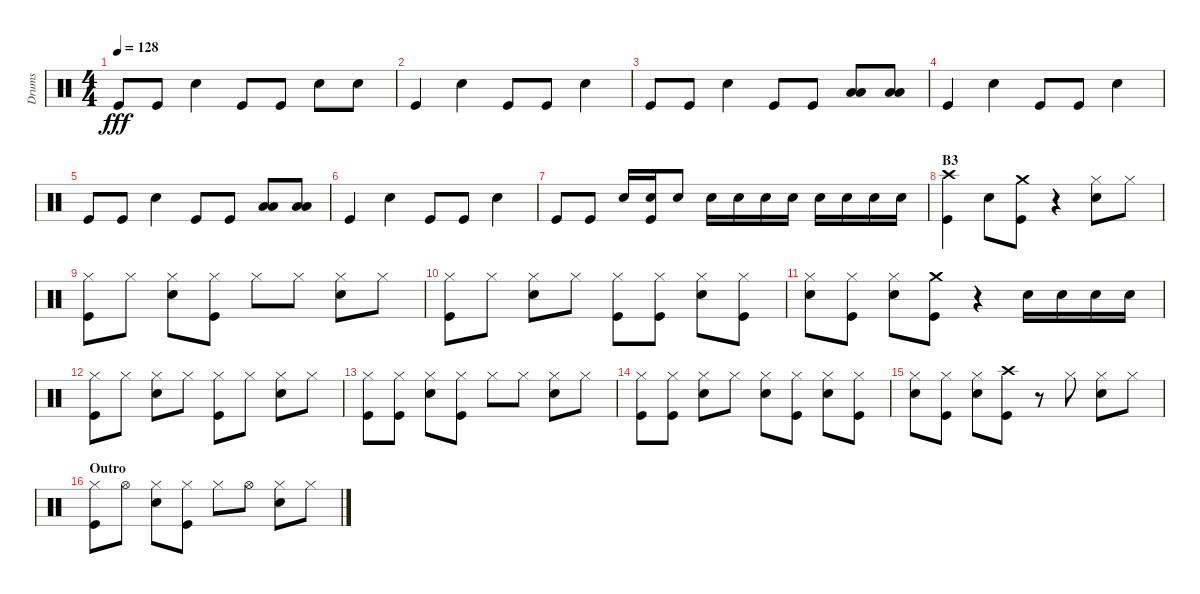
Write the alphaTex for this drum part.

\track ("Drums" "Drums") {instrument percussion}
\staff {score}
\articulation defaults
\ts (4 4)
\tempo 128
\clef neutral
\ks c "Kick (hit)".8{dy fff} "Kick (hit)".8 "Snare (hit) 2".4 "Kick (hit)".8 "Kick (hit)".8 "Snare (hit) 2".8 "Snare (hit) 2".8
|
"Kick (hit)".4 "Snare (hit) 2".4 "Kick (hit)".8 "Kick (hit)".8 "Snare (hit) 2".4 |
"Kick (hit)".8 "Kick (hit)".8 "Snare (hit) 2".4 "Kick (hit)".8 "Kick (hit)".8 ("Low Tom (hit)" "Low Floor Tom (hit)").8 ("Low Tom (hit)" "Low Floor Tom (hit)").8 |
"Kick (hit)".4 "Snare (hit) 2".4 "Kick (hit)".8 "Kick (hit)".8 "Snare (hit) 2".4 |
"Kick (hit)".8 "Kick (hit)".8 "Snare (hit) 2".4 "Kick (hit)".8 "Kick (hit)".8 ("Low Tom (hit)" "Low Floor Tom (hit)").8 ("Low Tom (hit)" "Low Floor Tom (hit)").8 |
"Kick (hit)".4 "Snare (hit) 2".4 "Kick (hit)".8 "Kick (hit)".8 "Snare (hit) 2".4 |
"Kick (hit)".8 "Kick (hit)".8 "Snare (hit) 2".16 ("Snare (hit) 2" "Kick (hit)").16 "Snare (hit) 2".8 "Snare (hit) 2".16 "Snare (hit) 2".16 "Snare (hit) 2".16 "Snare (hit) 2".16 "Snare (hit) 2".16 "Snare (hit) 2".16 "Snare (hit) 2".16 "Snare (hit) 2".16 |
\section ("" "B3")
("Crash high (hit)" "Kick (hit)").4 "Snare (hit) 2".8 ("Crash medium (hit)" "Kick (hit)").8 r.4 ("Hi-Hat (closed)" "Snare (hit) 2").8 "Hi-Hat (closed)".8 |
("Hi-Hat (closed)" "Kick (hit)").8 "Hi-Hat (closed)".8 ("Hi-Hat (closed)" "Snare (hit) 2").8 ("Hi-Hat (closed)" "Kick (hit)").8 "Hi-Hat (closed)".8 "Hi-Hat (closed)".8 ("Hi-Hat (closed)" "Snare (hit) 2").8 "Hi-Hat (closed)".8 |
("Hi-Hat (closed)" "Kick (hit)").8 "Hi-Hat (closed)".8 ("Hi-Hat (closed)" "Snare (hit) 2").8 "Hi-Hat (closed)".8 ("Hi-Hat (closed)" "Kick (hit)").8 ("Hi-Hat (closed)" "Kick (hit)").8 ("Hi-Hat (closed)" "Snare (hit) 2").8 ("Hi-Hat (closed)" "Kick (hit)").8 |
("Hi-Hat (closed)" "Snare (hit) 2").8 ("Hi-Hat (closed)" "Kick (hit)").8 ("Hi-Hat (closed)" "Snare (hit) 2").8 ("Crash medium (hit)" "Kick (hit)").8 r.4 "Snare (hit) 2".16 "Snare (hit) 2".16 "Snare (hit) 2".16 "Snare (hit) 2".16 |
("Hi-Hat (closed)" "Kick (hit)").8 "Hi-Hat (closed)".8 ("Hi-Hat (closed)" "Snare (hit) 2").8 "Hi-Hat (closed)".8 ("Hi-Hat (closed)" "Kick (hit)").8 "Hi-Hat (closed)".8 ("Hi-Hat (closed)" "Snare (hit) 2").8 "Hi-Hat (closed)".8 |
("Hi-Hat (closed)" "Kick (hit)").8 ("Hi-Hat (closed)" "Kick (hit)").8 ("Hi-Hat (closed)" "Snare (hit) 2").8 ("Hi-Hat (closed)" "Kick (hit)").8 "Hi-Hat (closed)".8 "Hi-Hat (closed)".8 ("Hi-Hat (closed)" "Snare (hit) 2").8 "Hi-Hat (closed)".8 |
("Hi-Hat (closed)" "Kick (hit)").8 ("Hi-Hat (closed)" "Kick (hit)").8 ("Hi-Hat (closed)" "Snare (hit) 2").8 "Hi-Hat (closed)".8 ("Hi-Hat (closed)" "Snare (hit) 2").8 ("Hi-Hat (closed)" "Kick (hit)").8 ("Hi-Hat (closed)" "Snare (hit) 2").8 ("Hi-Hat (closed)" "Kick (hit)").8 |
("Hi-Hat (closed)" "Snare (hit) 2").8 ("Hi-Hat (closed)" "Kick (hit)").8 ("Hi-Hat (closed)" "Snare (hit) 2").8 ("Crash high (hit)" "Kick (hit)").8 r.8 "Hi-Hat (closed)".8 ("Hi-Hat (closed)" "Snare (hit) 2").8 "Hi-Hat (closed)".8 |
\section ("" "Outro")
("Hi-Hat (closed)" "Kick (hit)").8 "Hi-Hat (open)".8 ("Hi-Hat (closed)" "Snare (hit) 2").8 ("Hi-Hat (closed)" "Kick (hit)").8 "Hi-Hat (closed)".8 "Hi-Hat (open)".8 ("Hi-Hat (closed)" "Snare (hit) 2").8 "Hi-Hat (closed)".8
